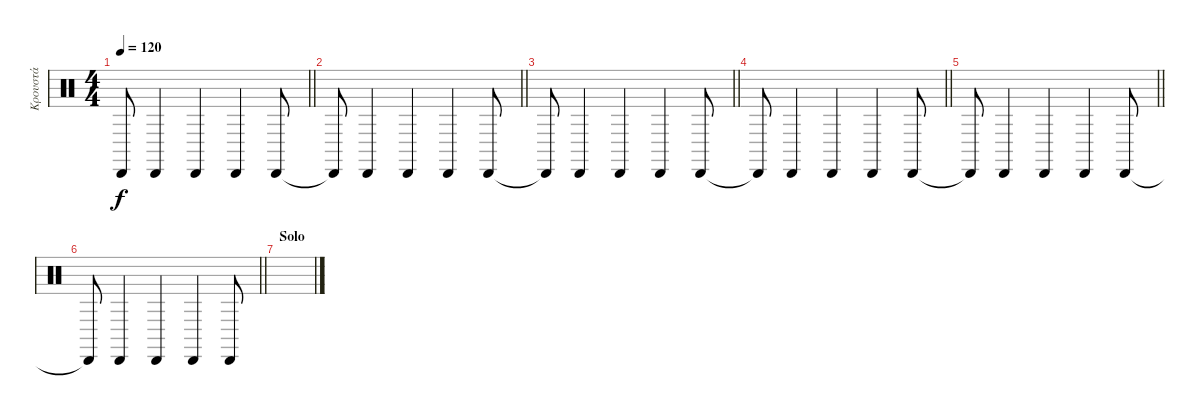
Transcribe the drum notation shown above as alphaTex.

\track ("Κρουστά" "Κρουστά") {instrument percussion}
\staff {score}
\articulation defaults
\ts (4 4)
\tempo 120
\clef neutral
\barLineRight lightlight
\ks c "Cabasa (hit)"{t}.8{dy f} "Cabasa (hit)".4 "Cabasa (hit)".4 "Cabasa (hit)".4 "Cabasa (hit)".8
|
\barLineRight lightlight "Cabasa (hit)"{t}.8 "Cabasa (hit)".4 "Cabasa (hit)".4 "Cabasa (hit)".4 "Cabasa (hit)".8
|
\barLineRight lightlight "Cabasa (hit)"{t}.8 "Cabasa (hit)".4 "Cabasa (hit)".4 "Cabasa (hit)".4 "Cabasa (hit)".8
|
\barLineRight lightlight "Cabasa (hit)"{t}.8 "Cabasa (hit)".4 "Cabasa (hit)".4 "Cabasa (hit)".4 "Cabasa (hit)".8
|
\barLineRight lightlight "Cabasa (hit)"{t}.8 "Cabasa (hit)".4 "Cabasa (hit)".4 "Cabasa (hit)".4 "Cabasa (hit)".8
|
\barLineRight lightlight "Cabasa (hit)"{t}.8 "Cabasa (hit)".4 "Cabasa (hit)".4 "Cabasa (hit)".4 "Cabasa (hit)".8
|
\section ("" "Solo")
